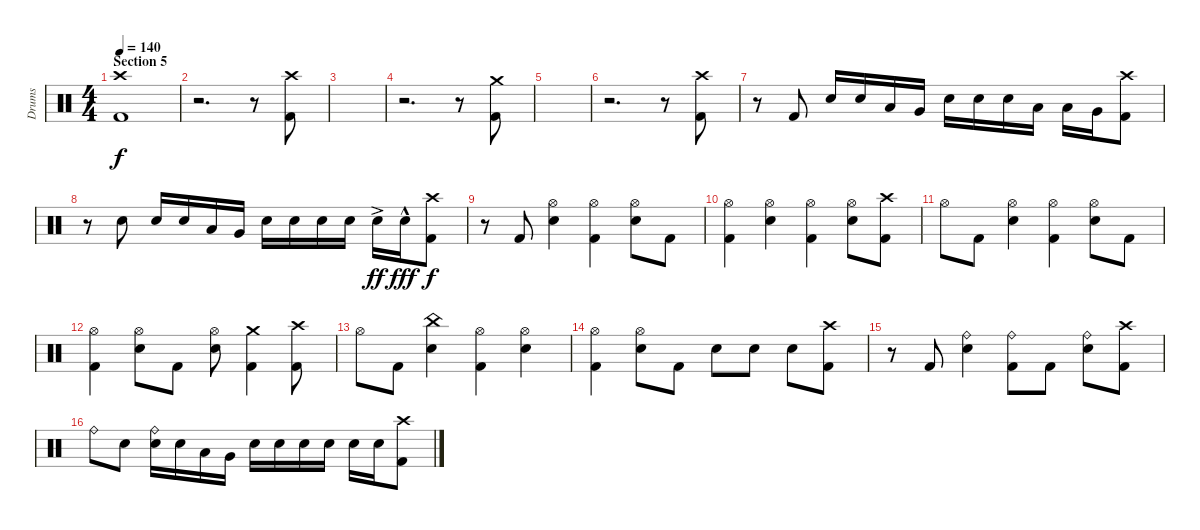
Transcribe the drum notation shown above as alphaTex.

\track ("Drums" "Drums") {instrument percussion}
\staff {score}
\articulation defaults
\ts (4 4)
\section ("" "Section 5")
\tempo 140
\clef neutral
\ks c
("Crash high (hit)" "Kick (hit) 2").1{dy f} |
r.2{d} r.8 ("Crash high (hit)" "Kick (hit) 2").8 |
|
r.2{d} r.8 ("Crash medium (hit)" "Kick (hit) 2").8 |
|
r.2{d} r.8 ("Crash high (hit)" "Kick (hit) 2").8 |
r.8 "Kick (hit) 2".8 "Snare (hit) 2".16 "Snare (hit) 2".16 "Low Tom (hit)".16 "Very Low Tom (hit)".16 "Snare (hit) 2".16 "Snare (hit) 2".16 "Snare (hit) 2".16 "Low Tom (hit)".16 "Low Tom (hit)".16 "Very Low Tom (hit)".16 ("Crash high (hit)" "Kick (hit) 2").8 |
r.8 "Snare (hit) 2".8 "Snare (hit) 2".16 "Snare (hit) 2".16 "Low Tom (hit)".16 "Very Low Tom (hit)".16 "Snare (hit) 2".16 "Snare (hit) 2".16 "Snare (hit) 2".16 "Snare (hit) 2".16 "Snare (hit) 2"{ac}.16{dy ff} "Snare (hit) 2"{hac}.16{dy fff} ("Crash high (hit)" "Kick (hit) 2").8{dy f} |
r.8 "Kick (hit) 2".8 ("Hi-Hat (open)" "Snare (hit) 2").4 ("Hi-Hat (open)" "Kick (hit) 2").4 ("Hi-Hat (open)" "Snare (hit) 2").8 "Kick (hit) 2".8 |
("Hi-Hat (open)" "Kick (hit) 2").4 ("Hi-Hat (open)" "Snare (hit) 2").4 ("Hi-Hat (open)" "Kick (hit) 2").4 ("Hi-Hat (open)" "Snare (hit) 2").8 ("Crash high (hit)" "Kick (hit) 2").8 |
"Hi-Hat (open)".8 "Kick (hit) 2".8 ("Hi-Hat (open)" "Snare (hit) 2").4 ("Hi-Hat (open)" "Kick (hit) 2").4 ("Hi-Hat (open)" "Snare (hit) 2").8 "Kick (hit) 2".8 |
("Hi-Hat (open)" "Kick (hit) 2").4 ("Hi-Hat (open)" "Snare (hit) 2").8 "Kick (hit) 2".8 ("Hi-Hat (open)" "Snare (hit) 2").8 ("Crash medium (hit)" "Kick (hit) 2").4 ("Crash high (hit)" "Kick (hit) 2").8 |
"Hi-Hat (open)".8 "Kick (hit) 2".8 ("China (hit)" "Snare (hit) 2").4 ("Hi-Hat (open)" "Kick (hit) 2").4 ("Hi-Hat (open)" "Snare (hit) 2").4 |
("Hi-Hat (open)" "Kick (hit) 2").4 ("Hi-Hat (open)" "Snare (hit) 2").8 "Kick (hit) 2".8 "Snare (hit) 2".8 "Snare (hit) 2".8 "Snare (hit) 2".8 ("Crash high (hit)" "Kick (hit) 2").8 |
r.8 "Kick (hit) 2".8 ("Ride (bell)" "Snare (hit) 2").4 ("Ride (bell)" "Kick (hit) 2").8 "Kick (hit) 2".8 ("Ride (bell)" "Snare (hit) 2").8 ("Crash high (hit)" "Kick (hit) 2").8 |
"Ride (bell)".8 "Snare (hit) 2".8 ("Ride (bell)" "Snare (hit) 2").16 "Snare (hit) 2".16 "Low Tom (hit)".16 "Very Low Tom (hit)".16 "Snare (hit) 2".16 "Snare (hit) 2".16 "Snare (hit) 2".16 "Snare (hit) 2".16 "Snare (hit) 2".16 "Snare (hit) 2".16 ("Crash high (hit)" "Kick (hit) 2").8
